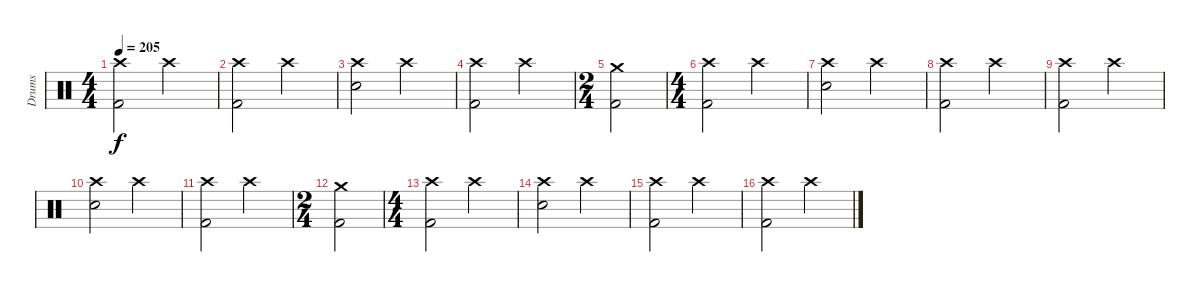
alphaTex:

\track ("Drums" "Drums") {instrument percussion}
\staff {score}
\articulation defaults
\ts (4 4)
\tempo 205
\clef neutral
\ks c
("Crash high (hit)" "Kick (hit) 2").2{dy f} "Crash high (hit)".2 |
("Crash high (hit)" "Kick (hit) 2").2 "Crash high (hit)".2 |
("Crash high (hit)" "Electric Snare (hit)").2 "Crash high (hit)".2 |
("Crash high (hit)" "Kick (hit) 2").2 "Crash high (hit)".2 |
\ts (2 4)
("Crash medium (hit)" "Kick (hit) 2").2 |
\ts (4 4)
("Crash high (hit)" "Kick (hit) 2").2 "Crash high (hit)".2 |
("Crash high (hit)" "Electric Snare (hit)").2 "Crash high (hit)".2 |
("Crash high (hit)" "Kick (hit) 2").2 "Crash high (hit)".2 |
("Crash high (hit)" "Kick (hit) 2").2 "Crash high (hit)".2 |
("Crash high (hit)" "Electric Snare (hit)").2 "Crash high (hit)".2 |
("Crash high (hit)" "Kick (hit) 2").2 "Crash high (hit)".2 |
\ts (2 4)
("Crash medium (hit)" "Kick (hit) 2").2 |
\ts (4 4)
("Crash high (hit)" "Kick (hit) 2").2 "Crash high (hit)".2 |
("Crash high (hit)" "Electric Snare (hit)").2 "Crash high (hit)".2 |
("Crash high (hit)" "Kick (hit) 2").2 "Crash high (hit)".2 |
("Crash high (hit)" "Kick (hit) 2").2 "Crash high (hit)".2
